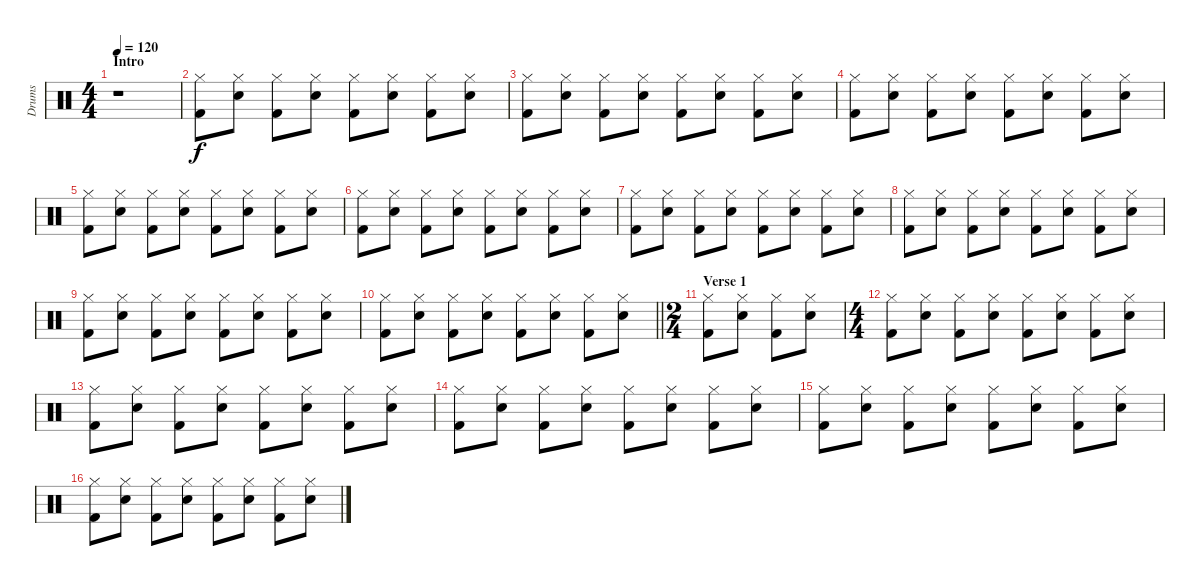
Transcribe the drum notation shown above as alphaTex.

\track ("Drums" "Drums") {instrument percussion}
\staff {score}
\articulation defaults
\ts (4 4)
\section ("" "Intro")
\tempo 120
\clef neutral
\ks c
r.1{dy f} |
("Hi-Hat (closed)" "Kick (hit) 2").8 ("Hi-Hat (closed)" "Snare (hit) 2").8 ("Hi-Hat (closed)" "Kick (hit) 2").8 ("Hi-Hat (closed)" "Snare (hit) 2").8 ("Hi-Hat (closed)" "Kick (hit) 2").8 ("Hi-Hat (closed)" "Snare (hit) 2").8 ("Hi-Hat (closed)" "Kick (hit) 2").8 ("Hi-Hat (closed)" "Snare (hit) 2").8 |
("Hi-Hat (closed)" "Kick (hit) 2").8 ("Hi-Hat (closed)" "Snare (hit) 2").8 ("Hi-Hat (closed)" "Kick (hit) 2").8 ("Hi-Hat (closed)" "Snare (hit) 2").8 ("Hi-Hat (closed)" "Kick (hit) 2").8 ("Hi-Hat (closed)" "Snare (hit) 2").8 ("Hi-Hat (closed)" "Kick (hit) 2").8 ("Hi-Hat (closed)" "Snare (hit) 2").8 |
("Hi-Hat (closed)" "Kick (hit) 2").8 ("Hi-Hat (closed)" "Snare (hit) 2").8 ("Hi-Hat (closed)" "Kick (hit) 2").8 ("Hi-Hat (closed)" "Snare (hit) 2").8 ("Hi-Hat (closed)" "Kick (hit) 2").8 ("Hi-Hat (closed)" "Snare (hit) 2").8 ("Hi-Hat (closed)" "Kick (hit) 2").8 ("Hi-Hat (closed)" "Snare (hit) 2").8 |
("Hi-Hat (closed)" "Kick (hit) 2").8 ("Hi-Hat (closed)" "Snare (hit) 2").8 ("Hi-Hat (closed)" "Kick (hit) 2").8 ("Hi-Hat (closed)" "Snare (hit) 2").8 ("Hi-Hat (closed)" "Kick (hit) 2").8 ("Hi-Hat (closed)" "Snare (hit) 2").8 ("Hi-Hat (closed)" "Kick (hit) 2").8 ("Hi-Hat (closed)" "Snare (hit) 2").8 |
("Hi-Hat (closed)" "Kick (hit) 2").8 ("Hi-Hat (closed)" "Snare (hit) 2").8 ("Hi-Hat (closed)" "Kick (hit) 2").8 ("Hi-Hat (closed)" "Snare (hit) 2").8 ("Hi-Hat (closed)" "Kick (hit) 2").8 ("Hi-Hat (closed)" "Snare (hit) 2").8 ("Hi-Hat (closed)" "Kick (hit) 2").8 ("Hi-Hat (closed)" "Snare (hit) 2").8 |
("Hi-Hat (closed)" "Kick (hit) 2").8 ("Hi-Hat (closed)" "Snare (hit) 2").8 ("Hi-Hat (closed)" "Kick (hit) 2").8 ("Hi-Hat (closed)" "Snare (hit) 2").8 ("Hi-Hat (closed)" "Kick (hit) 2").8 ("Hi-Hat (closed)" "Snare (hit) 2").8 ("Hi-Hat (closed)" "Kick (hit) 2").8 ("Hi-Hat (closed)" "Snare (hit) 2").8 |
("Hi-Hat (closed)" "Kick (hit) 2").8 ("Hi-Hat (closed)" "Snare (hit) 2").8 ("Hi-Hat (closed)" "Kick (hit) 2").8 ("Hi-Hat (closed)" "Snare (hit) 2").8 ("Hi-Hat (closed)" "Kick (hit) 2").8 ("Hi-Hat (closed)" "Snare (hit) 2").8 ("Hi-Hat (closed)" "Kick (hit) 2").8 ("Hi-Hat (closed)" "Snare (hit) 2").8 |
("Hi-Hat (closed)" "Kick (hit) 2").8 ("Hi-Hat (closed)" "Snare (hit) 2").8 ("Hi-Hat (closed)" "Kick (hit) 2").8 ("Hi-Hat (closed)" "Snare (hit) 2").8 ("Hi-Hat (closed)" "Kick (hit) 2").8 ("Hi-Hat (closed)" "Snare (hit) 2").8 ("Hi-Hat (closed)" "Kick (hit) 2").8 ("Hi-Hat (closed)" "Snare (hit) 2").8 |
\barLineRight lightlight
("Hi-Hat (closed)" "Kick (hit) 2").8 ("Hi-Hat (closed)" "Snare (hit) 2").8 ("Hi-Hat (closed)" "Kick (hit) 2").8 ("Hi-Hat (closed)" "Snare (hit) 2").8 ("Hi-Hat (closed)" "Kick (hit) 2").8 ("Hi-Hat (closed)" "Snare (hit) 2").8 ("Hi-Hat (closed)" "Kick (hit) 2").8 ("Hi-Hat (closed)" "Snare (hit) 2").8 |
\ts (2 4)
\section ("" "Verse 1")
("Hi-Hat (closed)" "Kick (hit) 2").8 ("Hi-Hat (closed)" "Snare (hit) 2").8 ("Hi-Hat (closed)" "Kick (hit) 2").8 ("Hi-Hat (closed)" "Snare (hit) 2").8 |
\ts (4 4)
("Hi-Hat (closed)" "Kick (hit) 2").8 ("Hi-Hat (closed)" "Snare (hit) 2").8 ("Hi-Hat (closed)" "Kick (hit) 2").8 ("Hi-Hat (closed)" "Snare (hit) 2").8 ("Hi-Hat (closed)" "Kick (hit) 2").8 ("Hi-Hat (closed)" "Snare (hit) 2").8 ("Hi-Hat (closed)" "Kick (hit) 2").8 ("Hi-Hat (closed)" "Snare (hit) 2").8 |
("Hi-Hat (closed)" "Kick (hit) 2").8 ("Hi-Hat (closed)" "Snare (hit) 2").8 ("Hi-Hat (closed)" "Kick (hit) 2").8 ("Hi-Hat (closed)" "Snare (hit) 2").8 ("Hi-Hat (closed)" "Kick (hit) 2").8 ("Hi-Hat (closed)" "Snare (hit) 2").8 ("Hi-Hat (closed)" "Kick (hit) 2").8 ("Hi-Hat (closed)" "Snare (hit) 2").8 |
("Hi-Hat (closed)" "Kick (hit) 2").8 ("Hi-Hat (closed)" "Snare (hit) 2").8 ("Hi-Hat (closed)" "Kick (hit) 2").8 ("Hi-Hat (closed)" "Snare (hit) 2").8 ("Hi-Hat (closed)" "Kick (hit) 2").8 ("Hi-Hat (closed)" "Snare (hit) 2").8 ("Hi-Hat (closed)" "Kick (hit) 2").8 ("Hi-Hat (closed)" "Snare (hit) 2").8 |
("Hi-Hat (closed)" "Kick (hit) 2").8 ("Hi-Hat (closed)" "Snare (hit) 2").8 ("Hi-Hat (closed)" "Kick (hit) 2").8 ("Hi-Hat (closed)" "Snare (hit) 2").8 ("Hi-Hat (closed)" "Kick (hit) 2").8 ("Hi-Hat (closed)" "Snare (hit) 2").8 ("Hi-Hat (closed)" "Kick (hit) 2").8 ("Hi-Hat (closed)" "Snare (hit) 2").8 |
("Hi-Hat (closed)" "Kick (hit) 2").8 ("Hi-Hat (closed)" "Snare (hit) 2").8 ("Hi-Hat (closed)" "Kick (hit) 2").8 ("Hi-Hat (closed)" "Snare (hit) 2").8 ("Hi-Hat (closed)" "Kick (hit) 2").8 ("Hi-Hat (closed)" "Snare (hit) 2").8 ("Hi-Hat (closed)" "Kick (hit) 2").8 ("Hi-Hat (closed)" "Snare (hit) 2").8
